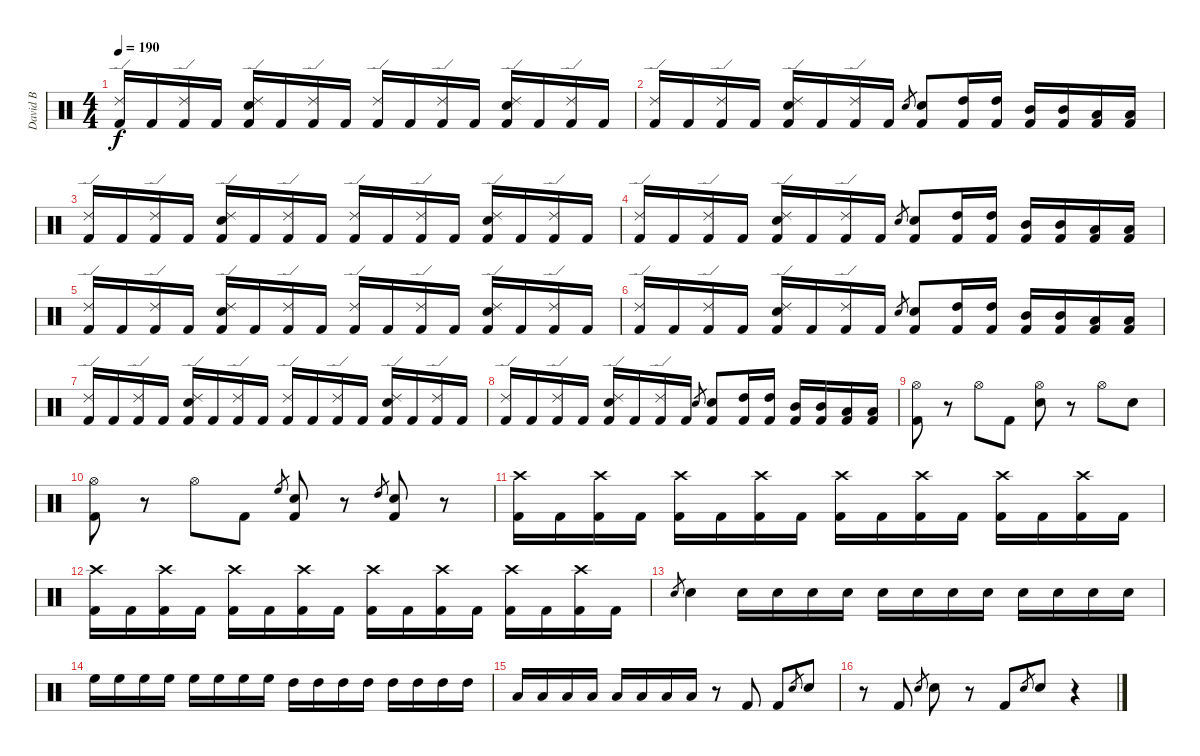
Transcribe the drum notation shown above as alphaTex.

\track ("David B" "David B") {instrument percussion}
\staff {score}
\articulation defaults
\ts (4 4)
\tempo 190
\clef neutral
\ks c
("Ride (edge) 2" "Kick (hit) 2").16{dy f} "Kick (hit) 2".16 ("Ride (edge) 2" "Kick (hit) 2").16 "Kick (hit) 2".16 ("Ride (edge) 2" "Electric Snare (hit)" "Kick (hit) 2").16 "Kick (hit) 2".16 ("Ride (edge) 2" "Kick (hit) 2").16 "Kick (hit) 2".16 ("Ride (edge) 2" "Kick (hit) 2").16 "Kick (hit) 2".16 ("Ride (edge) 2" "Kick (hit) 2").16 "Kick (hit) 2".16 ("Ride (edge) 2" "Electric Snare (hit)" "Kick (hit) 2").16 "Kick (hit) 2".16 ("Ride (edge) 2" "Kick (hit) 2").16 "Kick (hit) 2".16 |
("Ride (edge) 2" "Kick (hit) 2").16 "Kick (hit) 2".16 ("Ride (edge) 2" "Kick (hit) 2").16 "Kick (hit) 2".16 ("Ride (edge) 2" "Electric Snare (hit)" "Kick (hit) 2").16 "Kick (hit) 2".16 ("Ride (edge) 2" "Kick (hit) 2").16 "Kick (hit) 2".16 "Electric Snare (hit)".8{gr} ("Electric Snare (hit)" "Kick (hit) 2").8 ("High Tom (hit)" "Kick (hit) 2").16 ("High Tom (hit)" "Kick (hit) 2").16 ("Mid Tom (hit)" "Kick (hit) 2").16 ("Mid Tom (hit)" "Kick (hit) 2").16 ("Low Tom (hit)" "Kick (hit) 2").16 ("Low Tom (hit)" "Kick (hit) 2").16 |
("Ride (edge) 2" "Kick (hit) 2").16 "Kick (hit) 2".16 ("Ride (edge) 2" "Kick (hit) 2").16 "Kick (hit) 2".16 ("Ride (edge) 2" "Electric Snare (hit)" "Kick (hit) 2").16 "Kick (hit) 2".16 ("Ride (edge) 2" "Kick (hit) 2").16 "Kick (hit) 2".16 ("Ride (edge) 2" "Kick (hit) 2").16 "Kick (hit) 2".16 ("Ride (edge) 2" "Kick (hit) 2").16 "Kick (hit) 2".16 ("Ride (edge) 2" "Electric Snare (hit)" "Kick (hit) 2").16 "Kick (hit) 2".16 ("Ride (edge) 2" "Kick (hit) 2").16 "Kick (hit) 2".16 |
("Ride (edge) 2" "Kick (hit) 2").16 "Kick (hit) 2".16 ("Ride (edge) 2" "Kick (hit) 2").16 "Kick (hit) 2".16 ("Ride (edge) 2" "Electric Snare (hit)" "Kick (hit) 2").16 "Kick (hit) 2".16 ("Ride (edge) 2" "Kick (hit) 2").16 "Kick (hit) 2".16 "Electric Snare (hit)".8{gr} ("Electric Snare (hit)" "Kick (hit) 2").8 ("High Tom (hit)" "Kick (hit) 2").16 ("High Tom (hit)" "Kick (hit) 2").16 ("Mid Tom (hit)" "Kick (hit) 2").16 ("Mid Tom (hit)" "Kick (hit) 2").16 ("Low Tom (hit)" "Kick (hit) 2").16 ("Low Tom (hit)" "Kick (hit) 2").16 |
("Ride (edge) 2" "Kick (hit) 2").16 "Kick (hit) 2".16 ("Ride (edge) 2" "Kick (hit) 2").16 "Kick (hit) 2".16 ("Ride (edge) 2" "Electric Snare (hit)" "Kick (hit) 2").16 "Kick (hit) 2".16 ("Ride (edge) 2" "Kick (hit) 2").16 "Kick (hit) 2".16 ("Ride (edge) 2" "Kick (hit) 2").16 "Kick (hit) 2".16 ("Ride (edge) 2" "Kick (hit) 2").16 "Kick (hit) 2".16 ("Ride (edge) 2" "Electric Snare (hit)" "Kick (hit) 2").16 "Kick (hit) 2".16 ("Ride (edge) 2" "Kick (hit) 2").16 "Kick (hit) 2".16 |
("Ride (edge) 2" "Kick (hit) 2").16 "Kick (hit) 2".16 ("Ride (edge) 2" "Kick (hit) 2").16 "Kick (hit) 2".16 ("Ride (edge) 2" "Electric Snare (hit)" "Kick (hit) 2").16 "Kick (hit) 2".16 ("Ride (edge) 2" "Kick (hit) 2").16 "Kick (hit) 2".16 "Electric Snare (hit)".8{gr} ("Electric Snare (hit)" "Kick (hit) 2").8 ("High Tom (hit)" "Kick (hit) 2").16 ("High Tom (hit)" "Kick (hit) 2").16 ("Mid Tom (hit)" "Kick (hit) 2").16 ("Mid Tom (hit)" "Kick (hit) 2").16 ("Low Tom (hit)" "Kick (hit) 2").16 ("Low Tom (hit)" "Kick (hit) 2").16 |
("Ride (edge) 2" "Kick (hit) 2").16 "Kick (hit) 2".16 ("Ride (edge) 2" "Kick (hit) 2").16 "Kick (hit) 2".16 ("Ride (edge) 2" "Electric Snare (hit)" "Kick (hit) 2").16 "Kick (hit) 2".16 ("Ride (edge) 2" "Kick (hit) 2").16 "Kick (hit) 2".16 ("Ride (edge) 2" "Kick (hit) 2").16 "Kick (hit) 2".16 ("Ride (edge) 2" "Kick (hit) 2").16 "Kick (hit) 2".16 ("Ride (edge) 2" "Electric Snare (hit)" "Kick (hit) 2").16 "Kick (hit) 2".16 ("Ride (edge) 2" "Kick (hit) 2").16 "Kick (hit) 2".16 |
("Ride (edge) 2" "Kick (hit) 2").16 "Kick (hit) 2".16 ("Ride (edge) 2" "Kick (hit) 2").16 "Kick (hit) 2".16 ("Ride (edge) 2" "Electric Snare (hit)" "Kick (hit) 2").16 "Kick (hit) 2".16 ("Ride (edge) 2" "Kick (hit) 2").16 "Kick (hit) 2".16 "Electric Snare (hit)".8{gr} ("Electric Snare (hit)" "Kick (hit) 2").8 ("High Tom (hit)" "Kick (hit) 2").16 ("High Tom (hit)" "Kick (hit) 2").16 ("Mid Tom (hit)" "Kick (hit) 2").16 ("Mid Tom (hit)" "Kick (hit) 2").16 ("Low Tom (hit)" "Kick (hit) 2").16 ("Low Tom (hit)" "Kick (hit) 2").16 |
("Hi-Hat (open)" "Kick (hit) 2").8 r.8 "Hi-Hat (open)".8 "Kick (hit) 2".8 ("Hi-Hat (open)" "Electric Snare (hit)").8 r.8 "Hi-Hat (open)".8 "Electric Snare (hit)".8 |
("Hi-Hat (open)" "Kick (hit) 2").8 r.8 "Hi-Hat (open)".8 "Kick (hit) 2".8 "High Floor Tom (hit)".8{gr} ("Electric Snare (hit)" "Kick (hit) 2").8 r.8 "High Tom (hit)".8{gr} ("Electric Snare (hit)" "Kick (hit) 2").8 r.8 |
("Crash high (hit)" "Kick (hit) 2").16 "Kick (hit) 2".16 ("Crash high (hit)" "Kick (hit) 2").16 "Kick (hit) 2".16 ("Crash high (hit)" "Kick (hit) 2").16 "Kick (hit) 2".16 ("Crash high (hit)" "Kick (hit) 2").16 "Kick (hit) 2".16 ("Crash high (hit)" "Kick (hit) 2").16 "Kick (hit) 2".16 ("Crash high (hit)" "Kick (hit) 2").16 "Kick (hit) 2".16 ("Crash high (hit)" "Kick (hit) 2").16 "Kick (hit) 2".16 ("Crash high (hit)" "Kick (hit) 2").16 "Kick (hit) 2".16 |
("Crash high (hit)" "Kick (hit) 2").16 "Kick (hit) 2".16 ("Crash high (hit)" "Kick (hit) 2").16 "Kick (hit) 2".16 ("Crash high (hit)" "Kick (hit) 2").16 "Kick (hit) 2".16 ("Crash high (hit)" "Kick (hit) 2").16 "Kick (hit) 2".16 ("Crash high (hit)" "Kick (hit) 2").16 "Kick (hit) 2".16 ("Crash high (hit)" "Kick (hit) 2").16 "Kick (hit) 2".16 ("Crash high (hit)" "Kick (hit) 2").16 "Kick (hit) 2".16 ("Crash high (hit)" "Kick (hit) 2").16 "Kick (hit) 2".16 |
"Electric Snare (hit)".8{gr} "Electric Snare (hit)".4 "Electric Snare (hit)".16 "Electric Snare (hit)".16 "Electric Snare (hit)".16 "Electric Snare (hit)".16 "Electric Snare (hit)".16 "Electric Snare (hit)".16 "Electric Snare (hit)".16 "Electric Snare (hit)".16 "Electric Snare (hit)".16 "Electric Snare (hit)".16 "Electric Snare (hit)".16 "Electric Snare (hit)".16 |
"High Floor Tom (hit)".16 "High Floor Tom (hit)".16 "High Floor Tom (hit)".16 "High Floor Tom (hit)".16 "High Floor Tom (hit)".16 "High Floor Tom (hit)".16 "High Floor Tom (hit)".16 "High Floor Tom (hit)".16 "High Tom (hit)".16 "High Tom (hit)".16 "High Tom (hit)".16 "High Tom (hit)".16 "High Tom (hit)".16 "High Tom (hit)".16 "High Tom (hit)".16 "High Tom (hit)".16 |
"Low Tom (hit)".16 "Low Tom (hit)".16 "Low Tom (hit)".16 "Low Tom (hit)".16 "Low Tom (hit)".16 "Low Tom (hit)".16 "Low Tom (hit)".16 "Low Tom (hit)".16 r.8 "Kick (hit) 2".8 "Kick (hit) 2".8 "Electric Snare (hit)".8{gr} "Electric Snare (hit)".8 |
r.8 "Kick (hit) 2".8 "Electric Snare (hit)".8{gr} "Electric Snare (hit)".8 r.8 "Kick (hit) 2".8 "Electric Snare (hit)".8{gr} "Electric Snare (hit)".8 r.4
